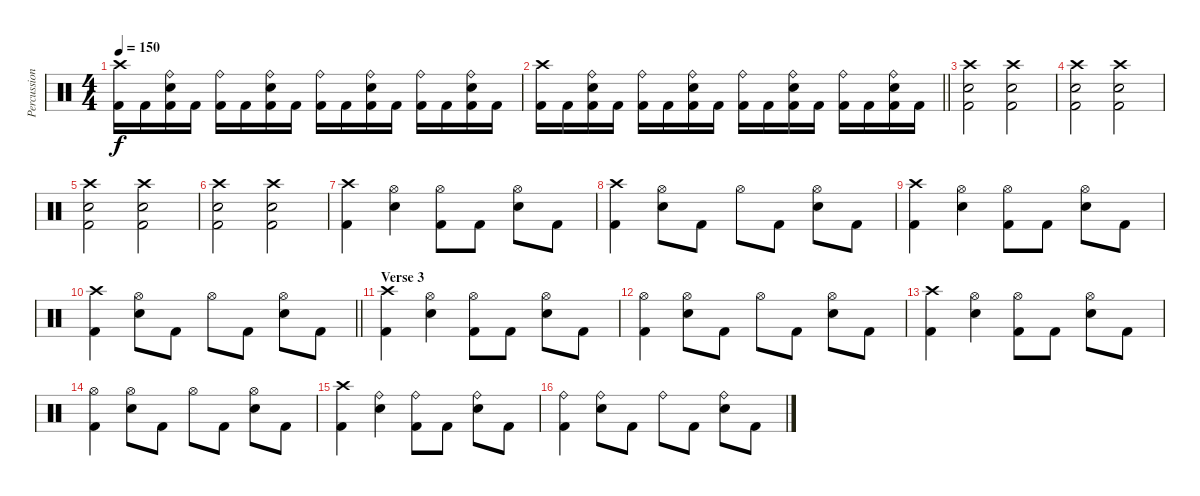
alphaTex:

\track ("Percussion" "Percussion") {instrument percussion}
\staff {score}
\articulation defaults
\ts (4 4)
\tempo 150
\clef neutral
\ks c
("Crash high (hit)" "Kick (hit) 2").16{dy f} "Kick (hit) 2".16 ("Ride (bell)" "Snare (hit) 2" "Kick (hit) 2").16 "Kick (hit) 2".16 ("Ride (bell)" "Kick (hit) 2").16 "Kick (hit) 2".16 ("Ride (bell)" "Snare (hit) 2" "Kick (hit) 2").16 "Kick (hit) 2".16 ("Ride (bell)" "Kick (hit) 2").16 "Kick (hit) 2".16 ("Ride (bell)" "Snare (hit) 2" "Kick (hit) 2").16 "Kick (hit) 2".16 ("Ride (bell)" "Kick (hit) 2").16 "Kick (hit) 2".16 ("Ride (bell)" "Snare (hit) 2" "Kick (hit) 2").16 "Kick (hit) 2".16 |
\barLineRight lightlight
("Crash high (hit)" "Kick (hit) 2").16 "Kick (hit) 2".16 ("Ride (bell)" "Snare (hit) 2" "Kick (hit) 2").16 "Kick (hit) 2".16 ("Ride (bell)" "Kick (hit) 2").16 "Kick (hit) 2".16 ("Ride (bell)" "Snare (hit) 2" "Kick (hit) 2").16 "Kick (hit) 2".16 ("Ride (bell)" "Kick (hit) 2").16 "Kick (hit) 2".16 ("Ride (bell)" "Snare (hit) 2" "Kick (hit) 2").16 "Kick (hit) 2".16 ("Ride (bell)" "Kick (hit) 2").16 "Kick (hit) 2".16 ("Ride (bell)" "Snare (hit) 2" "Kick (hit) 2").16 "Kick (hit) 2".16 |
\section ("" "")
("Crash high (hit)" "Snare (hit) 2" "Kick (hit) 2").2 ("Crash high (hit)" "Snare (hit) 2" "Kick (hit) 2").2 |
("Crash high (hit)" "Snare (hit) 2" "Kick (hit) 2").2 ("Crash high (hit)" "Snare (hit) 2" "Kick (hit) 2").2 |
("Crash high (hit)" "Snare (hit) 2" "Kick (hit) 2").2 ("Crash high (hit)" "Snare (hit) 2" "Kick (hit) 2").2 |
("Crash high (hit)" "Snare (hit) 2" "Kick (hit) 2").2 ("Crash high (hit)" "Snare (hit) 2" "Kick (hit) 2").2 |
("Crash high (hit)" "Kick (hit) 2").4 ("Hi-Hat (open)" "Electric Snare (hit)").4 ("Hi-Hat (open)" "Kick (hit) 2").8 "Kick (hit) 2".8 ("Hi-Hat (open)" "Electric Snare (hit)").8 "Kick (hit) 2".8 |
("Crash high (hit)" "Kick (hit) 2").4 ("Hi-Hat (open)" "Electric Snare (hit)").8 "Kick (hit) 2".8 "Hi-Hat (open)".8 "Kick (hit) 2".8 ("Hi-Hat (open)" "Electric Snare (hit)").8 "Kick (hit) 2".8 |
("Crash high (hit)" "Kick (hit) 2").4 ("Hi-Hat (open)" "Electric Snare (hit)").4 ("Hi-Hat (open)" "Kick (hit) 2").8 "Kick (hit) 2".8 ("Hi-Hat (open)" "Electric Snare (hit)").8 "Kick (hit) 2".8 |
\barLineRight lightlight
("Crash high (hit)" "Kick (hit) 2").4 ("Hi-Hat (open)" "Electric Snare (hit)").8 "Kick (hit) 2".8 "Hi-Hat (open)".8 "Kick (hit) 2".8 ("Hi-Hat (open)" "Electric Snare (hit)").8 "Kick (hit) 2".8 |
\section ("" "Verse 3")
("Crash high (hit)" "Kick (hit) 2").4 ("Hi-Hat (open)" "Electric Snare (hit)").4 ("Hi-Hat (open)" "Kick (hit) 2").8 "Kick (hit) 2".8 ("Hi-Hat (open)" "Electric Snare (hit)").8 "Kick (hit) 2".8 |
("Hi-Hat (open)" "Kick (hit) 2").4 ("Hi-Hat (open)" "Electric Snare (hit)").8 "Kick (hit) 2".8 "Hi-Hat (open)".8 "Kick (hit) 2".8 ("Hi-Hat (open)" "Electric Snare (hit)").8 "Kick (hit) 2".8 |
("Crash high (hit)" "Kick (hit) 2").4 ("Hi-Hat (open)" "Electric Snare (hit)").4 ("Hi-Hat (open)" "Kick (hit) 2").8 "Kick (hit) 2".8 ("Hi-Hat (open)" "Electric Snare (hit)").8 "Kick (hit) 2".8 |
("Hi-Hat (open)" "Kick (hit) 2").4 ("Hi-Hat (open)" "Electric Snare (hit)").8 "Kick (hit) 2".8 "Hi-Hat (open)".8 "Kick (hit) 2".8 ("Hi-Hat (open)" "Electric Snare (hit)").8 "Kick (hit) 2".8 |
("Crash high (hit)" "Kick (hit) 2").4 ("Ride (bell)" "Electric Snare (hit)").4 ("Ride (bell)" "Kick (hit) 2").8 "Kick (hit) 2".8 ("Ride (bell)" "Electric Snare (hit)").8 "Kick (hit) 2".8 |
("Ride (bell)" "Kick (hit) 2").4 ("Ride (bell)" "Electric Snare (hit)").8 "Kick (hit) 2".8 "Ride (bell)".8 "Kick (hit) 2".8 ("Ride (bell)" "Electric Snare (hit)").8 "Kick (hit) 2".8
